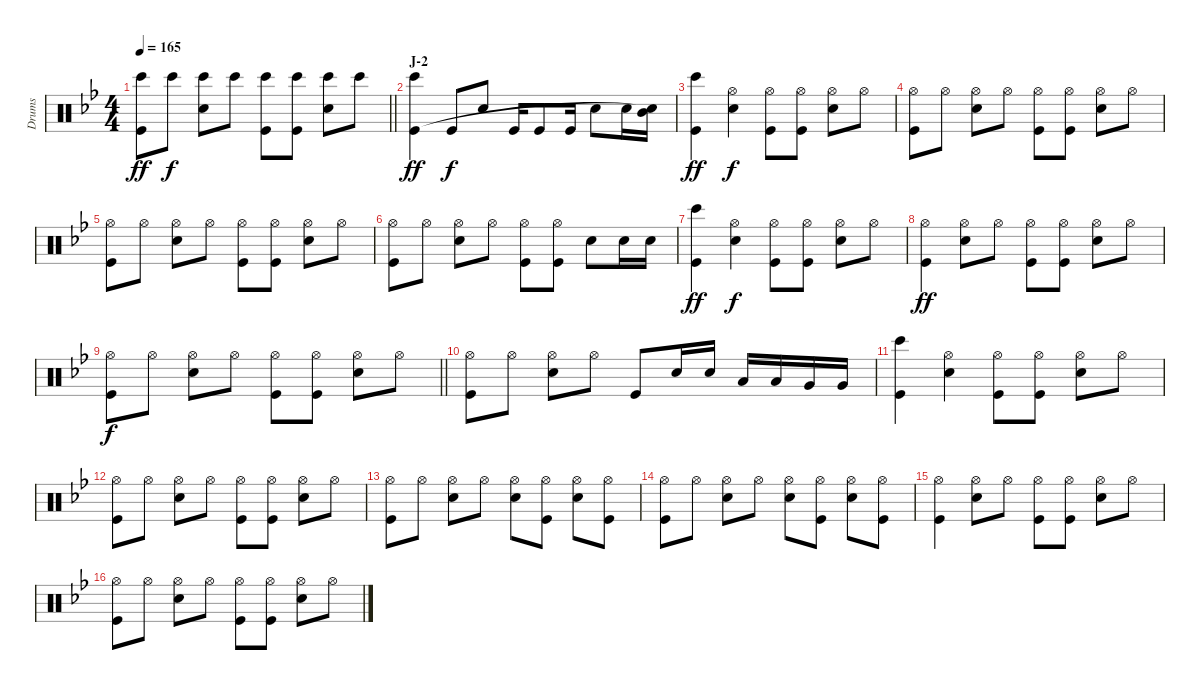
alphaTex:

\track ("Drums" "Drums") {instrument percussion}
\staff {score}
\articulation defaults
\ts (4 4)
\tempo 165
\clef neutral
\barLineRight lightlight
\ks bb
("Bongo High (hit)" "Kick (hit)").8{dy ff} "Bongo High (hit)".8{dy f} ("Bongo High (hit)" "Snare (hit) 2").8 "Bongo High (hit)".8 ("Bongo High (hit)" "Kick (hit)").8 ("Bongo High (hit)" "Kick (hit)").8 ("Bongo High (hit)" "Snare (hit) 2").8 "Bongo High (hit)".8 |
\section ("" "J-2")
("Bongo High (hit)" "Kick (hit)").4{dy ff} "Kick (hit)".8{dy f} "Snare (hit) 2".8 "Kick (hit)".16 "Kick (hit)".8 "Kick (hit)".16 "Snare (hit) 2".8 "Snare (hit) 2".16 ("Mid Tom (hit)" "Snare (hit)"{t}).16 |
("Bongo High (hit)" "Kick (hit)").4{dy ff} ("Hi-Hat (open)" "Snare (hit) 2").4{dy f} ("Hi-Hat (open)" "Kick (hit)").8 ("Hi-Hat (open)" "Kick (hit)").8 ("Hi-Hat (open)" "Snare (hit) 2").8 "Hi-Hat (open)".8 |
("Hi-Hat (open)" "Kick (hit)").8 "Hi-Hat (open)".8 ("Hi-Hat (open)" "Snare (hit) 2").8 "Hi-Hat (open)".8 ("Hi-Hat (open)" "Kick (hit)").8 ("Hi-Hat (open)" "Kick (hit)").8 ("Hi-Hat (open)" "Snare (hit) 2").8 "Hi-Hat (open)".8 |
("Hi-Hat (open)" "Kick (hit)").8 "Hi-Hat (open)".8 ("Hi-Hat (open)" "Snare (hit) 2").8 "Hi-Hat (open)".8 ("Hi-Hat (open)" "Kick (hit)").8 ("Hi-Hat (open)" "Kick (hit)").8 ("Hi-Hat (open)" "Snare (hit) 2").8 "Hi-Hat (open)".8 |
("Hi-Hat (open)" "Kick (hit)").8 "Hi-Hat (open)".8 ("Hi-Hat (open)" "Snare (hit) 2").8 "Hi-Hat (open)".8 ("Hi-Hat (open)" "Kick (hit)").8 ("Hi-Hat (open)" "Kick (hit)").8 "Snare (hit) 2".8 "Snare (hit) 2".16 "Snare (hit) 2".16 |
("Bongo High (hit)" "Kick (hit)").4{dy ff} ("Hi-Hat (open)" "Snare (hit) 2").4{dy f} ("Hi-Hat (open)" "Kick (hit)").8 ("Hi-Hat (open)" "Kick (hit)").8 ("Hi-Hat (open)" "Snare (hit) 2").8 "Hi-Hat (open)".8 |
("Hi-Hat (open)" "Kick (hit)").4{dy ff} ("Hi-Hat (open)" "Snare (hit) 2").8 "Hi-Hat (open)".8 ("Hi-Hat (open)" "Kick (hit)").8 ("Hi-Hat (open)" "Kick (hit)").8 ("Hi-Hat (open)" "Snare (hit) 2").8 "Hi-Hat (open)".8 |
\barLineRight lightlight
("Hi-Hat (open)" "Kick (hit)").8{dy f} "Hi-Hat (open)".8 ("Hi-Hat (open)" "Snare (hit) 2").8 "Hi-Hat (open)".8 ("Hi-Hat (open)" "Kick (hit)").8 ("Hi-Hat (open)" "Kick (hit)").8 ("Hi-Hat (open)" "Snare (hit) 2").8 "Hi-Hat (open)".8 |
("Hi-Hat (open)" "Kick (hit)").8 "Hi-Hat (open)".8 ("Hi-Hat (open)" "Snare (hit) 2").8 "Hi-Hat (open)".8 "Kick (hit)".8 "Snare (hit) 2".16 "Snare (hit) 2".16 "Low Tom (hit)".16 "Low Tom (hit)".16 "Very Low Tom (hit)".16 "Very Low Tom (hit)".16 |
("Kick (hit)" "Bongo High (hit)").4 ("Hi-Hat (open)" "Snare (hit) 2").4 ("Hi-Hat (open)" "Kick (hit)").8 ("Hi-Hat (open)" "Kick (hit)").8 ("Hi-Hat (open)" "Snare (hit) 2").8 "Hi-Hat (open)".8 |
("Hi-Hat (open)" "Kick (hit)").8 "Hi-Hat (open)".8 ("Hi-Hat (open)" "Snare (hit) 2").8 "Hi-Hat (open)".8 ("Hi-Hat (open)" "Kick (hit)").8 ("Hi-Hat (open)" "Kick (hit)").8 ("Hi-Hat (open)" "Snare (hit) 2").8 "Hi-Hat (open)".8 |
("Hi-Hat (open)" "Kick (hit)").8 "Hi-Hat (open)".8 ("Hi-Hat (open)" "Snare (hit) 2").8 "Hi-Hat (open)".8 ("Hi-Hat (open)" "Snare (hit) 2").8 ("Hi-Hat (open)" "Kick (hit)").8 ("Hi-Hat (open)" "Snare (hit) 2").8 ("Hi-Hat (open)" "Kick (hit)").8 |
("Hi-Hat (open)" "Kick (hit)").8 "Hi-Hat (open)".8 ("Hi-Hat (open)" "Snare (hit) 2").8 "Hi-Hat (open)".8 ("Hi-Hat (open)" "Snare (hit) 2").8 ("Hi-Hat (open)" "Kick (hit)").8 ("Hi-Hat (open)" "Snare (hit) 2").8 ("Hi-Hat (open)" "Kick (hit)").8 |
("Hi-Hat (open)" "Kick (hit)").4 ("Hi-Hat (open)" "Snare (hit) 2").8 "Hi-Hat (open)".8 ("Hi-Hat (open)" "Kick (hit)").8 ("Hi-Hat (open)" "Kick (hit)").8 ("Hi-Hat (open)" "Snare (hit) 2").8 "Hi-Hat (open)".8 |
("Hi-Hat (open)" "Kick (hit)").8 "Hi-Hat (open)".8 ("Hi-Hat (open)" "Snare (hit) 2").8 "Hi-Hat (open)".8 ("Hi-Hat (open)" "Kick (hit)").8 ("Hi-Hat (open)" "Kick (hit)").8 ("Hi-Hat (open)" "Snare (hit) 2").8 "Hi-Hat (open)".8
